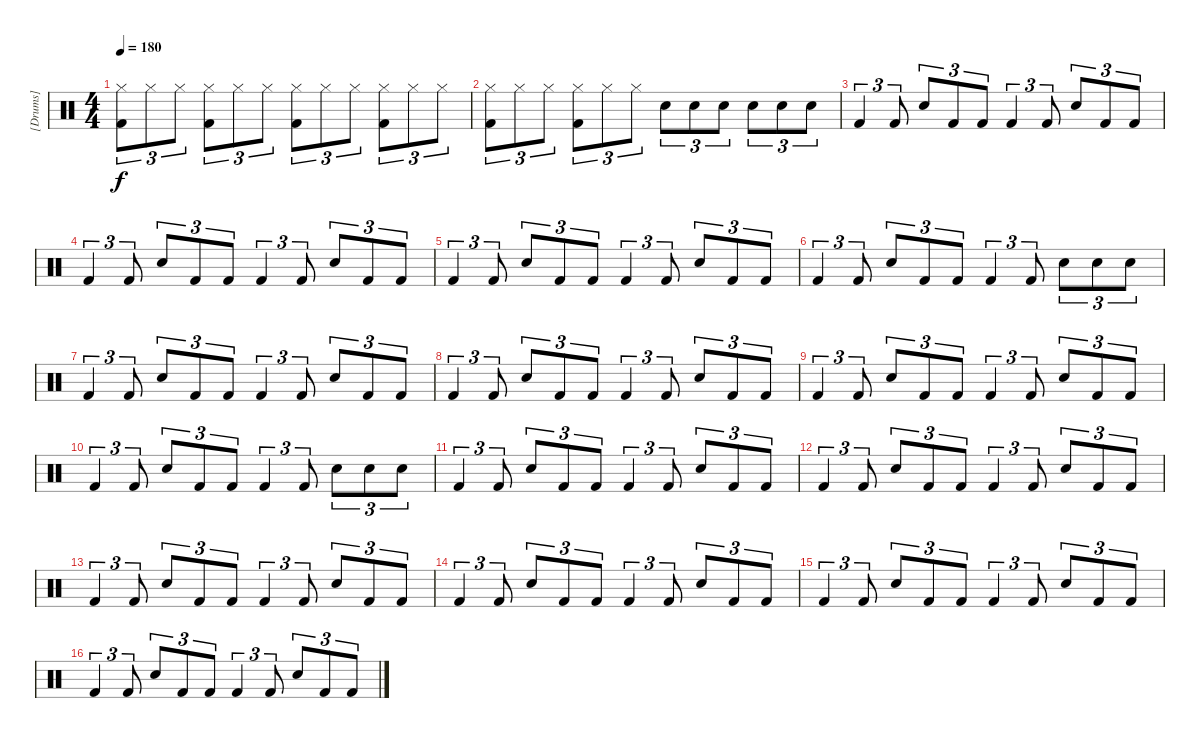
\track ("[Drums]" "[Drums]") {instrument percussion}
\staff {score}
\articulation defaults
\ts (4 4)
\tempo 180
\clef neutral
\ks c
("Hi-Hat (closed)" "Kick (hit) 2").8{tu (3 2) dy f} "Hi-Hat (closed)".8{tu (3 2)} "Hi-Hat (closed)".8{tu (3 2)} ("Hi-Hat (closed)" "Kick (hit) 2").8{tu (3 2)} "Hi-Hat (closed)".8{tu (3 2)} "Hi-Hat (closed)".8{tu (3 2)} ("Hi-Hat (closed)" "Kick (hit) 2").8{tu (3 2)} "Hi-Hat (closed)".8{tu (3 2)} "Hi-Hat (closed)".8{tu (3 2)} ("Hi-Hat (closed)" "Kick (hit) 2").8{tu (3 2)} "Hi-Hat (closed)".8{tu (3 2)} "Hi-Hat (closed)".8{tu (3 2)} |
("Hi-Hat (closed)" "Kick (hit) 2").8{tu (3 2)} "Hi-Hat (closed)".8{tu (3 2)} "Hi-Hat (closed)".8{tu (3 2)} ("Hi-Hat (closed)" "Kick (hit) 2").8{tu (3 2)} "Hi-Hat (closed)".8{tu (3 2)} "Hi-Hat (closed)".8{tu (3 2)} "Snare (hit) 2".8{tu (3 2)} "Snare (hit) 2".8{tu (3 2)} "Snare (hit) 2".8{tu (3 2)} "Snare (hit) 2".8{tu (3 2)} "Snare (hit) 2".8{tu (3 2)} "Snare (hit) 2".8{tu (3 2)} |
"Kick (hit) 2".4{tu (3 2)} "Kick (hit) 2".8{tu (3 2)} "Snare (hit) 2".8{tu (3 2)} "Kick (hit) 2".8{tu (3 2)} "Kick (hit) 2".8{tu (3 2)} "Kick (hit) 2".4{tu (3 2)} "Kick (hit) 2".8{tu (3 2)} "Snare (hit) 2".8{tu (3 2)} "Kick (hit) 2".8{tu (3 2)} "Kick (hit) 2".8{tu (3 2)} |
"Kick (hit) 2".4{tu (3 2)} "Kick (hit) 2".8{tu (3 2)} "Snare (hit) 2".8{tu (3 2)} "Kick (hit) 2".8{tu (3 2)} "Kick (hit) 2".8{tu (3 2)} "Kick (hit) 2".4{tu (3 2)} "Kick (hit) 2".8{tu (3 2)} "Snare (hit) 2".8{tu (3 2)} "Kick (hit) 2".8{tu (3 2)} "Kick (hit) 2".8{tu (3 2)} |
"Kick (hit) 2".4{tu (3 2)} "Kick (hit) 2".8{tu (3 2)} "Snare (hit) 2".8{tu (3 2)} "Kick (hit) 2".8{tu (3 2)} "Kick (hit) 2".8{tu (3 2)} "Kick (hit) 2".4{tu (3 2)} "Kick (hit) 2".8{tu (3 2)} "Snare (hit) 2".8{tu (3 2)} "Kick (hit) 2".8{tu (3 2)} "Kick (hit) 2".8{tu (3 2)} |
"Kick (hit) 2".4{tu (3 2)} "Kick (hit) 2".8{tu (3 2)} "Snare (hit) 2".8{tu (3 2)} "Kick (hit) 2".8{tu (3 2)} "Kick (hit) 2".8{tu (3 2)} "Kick (hit) 2".4{tu (3 2)} "Kick (hit) 2".8{tu (3 2)} "Snare (hit) 2".8{tu (3 2)} "Snare (hit) 2".8{tu (3 2)} "Snare (hit) 2".8{tu (3 2)} |
"Kick (hit) 2".4{tu (3 2)} "Kick (hit) 2".8{tu (3 2)} "Snare (hit) 2".8{tu (3 2)} "Kick (hit) 2".8{tu (3 2)} "Kick (hit) 2".8{tu (3 2)} "Kick (hit) 2".4{tu (3 2)} "Kick (hit) 2".8{tu (3 2)} "Snare (hit) 2".8{tu (3 2)} "Kick (hit) 2".8{tu (3 2)} "Kick (hit) 2".8{tu (3 2)} |
"Kick (hit) 2".4{tu (3 2)} "Kick (hit) 2".8{tu (3 2)} "Snare (hit) 2".8{tu (3 2)} "Kick (hit) 2".8{tu (3 2)} "Kick (hit) 2".8{tu (3 2)} "Kick (hit) 2".4{tu (3 2)} "Kick (hit) 2".8{tu (3 2)} "Snare (hit) 2".8{tu (3 2)} "Kick (hit) 2".8{tu (3 2)} "Kick (hit) 2".8{tu (3 2)} |
"Kick (hit) 2".4{tu (3 2)} "Kick (hit) 2".8{tu (3 2)} "Snare (hit) 2".8{tu (3 2)} "Kick (hit) 2".8{tu (3 2)} "Kick (hit) 2".8{tu (3 2)} "Kick (hit) 2".4{tu (3 2)} "Kick (hit) 2".8{tu (3 2)} "Snare (hit) 2".8{tu (3 2)} "Kick (hit) 2".8{tu (3 2)} "Kick (hit) 2".8{tu (3 2)} |
"Kick (hit) 2".4{tu (3 2)} "Kick (hit) 2".8{tu (3 2)} "Snare (hit) 2".8{tu (3 2)} "Kick (hit) 2".8{tu (3 2)} "Kick (hit) 2".8{tu (3 2)} "Kick (hit) 2".4{tu (3 2)} "Kick (hit) 2".8{tu (3 2)} "Snare (hit) 2".8{tu (3 2)} "Snare (hit) 2".8{tu (3 2)} "Snare (hit) 2".8{tu (3 2)} |
"Kick (hit) 2".4{tu (3 2)} "Kick (hit) 2".8{tu (3 2)} "Snare (hit) 2".8{tu (3 2)} "Kick (hit) 2".8{tu (3 2)} "Kick (hit) 2".8{tu (3 2)} "Kick (hit) 2".4{tu (3 2)} "Kick (hit) 2".8{tu (3 2)} "Snare (hit) 2".8{tu (3 2)} "Kick (hit) 2".8{tu (3 2)} "Kick (hit) 2".8{tu (3 2)} |
"Kick (hit) 2".4{tu (3 2)} "Kick (hit) 2".8{tu (3 2)} "Snare (hit) 2".8{tu (3 2)} "Kick (hit) 2".8{tu (3 2)} "Kick (hit) 2".8{tu (3 2)} "Kick (hit) 2".4{tu (3 2)} "Kick (hit) 2".8{tu (3 2)} "Snare (hit) 2".8{tu (3 2)} "Kick (hit) 2".8{tu (3 2)} "Kick (hit) 2".8{tu (3 2)} |
"Kick (hit) 2".4{tu (3 2)} "Kick (hit) 2".8{tu (3 2)} "Snare (hit) 2".8{tu (3 2)} "Kick (hit) 2".8{tu (3 2)} "Kick (hit) 2".8{tu (3 2)} "Kick (hit) 2".4{tu (3 2)} "Kick (hit) 2".8{tu (3 2)} "Snare (hit) 2".8{tu (3 2)} "Kick (hit) 2".8{tu (3 2)} "Kick (hit) 2".8{tu (3 2)} |
"Kick (hit) 2".4{tu (3 2)} "Kick (hit) 2".8{tu (3 2)} "Snare (hit) 2".8{tu (3 2)} "Kick (hit) 2".8{tu (3 2)} "Kick (hit) 2".8{tu (3 2)} "Kick (hit) 2".4{tu (3 2)} "Kick (hit) 2".8{tu (3 2)} "Snare (hit) 2".8{tu (3 2)} "Kick (hit) 2".8{tu (3 2)} "Kick (hit) 2".8{tu (3 2)} |
"Kick (hit) 2".4{tu (3 2)} "Kick (hit) 2".8{tu (3 2)} "Snare (hit) 2".8{tu (3 2)} "Kick (hit) 2".8{tu (3 2)} "Kick (hit) 2".8{tu (3 2)} "Kick (hit) 2".4{tu (3 2)} "Kick (hit) 2".8{tu (3 2)} "Snare (hit) 2".8{tu (3 2)} "Kick (hit) 2".8{tu (3 2)} "Kick (hit) 2".8{tu (3 2)} |
"Kick (hit) 2".4{tu (3 2)} "Kick (hit) 2".8{tu (3 2)} "Snare (hit) 2".8{tu (3 2)} "Kick (hit) 2".8{tu (3 2)} "Kick (hit) 2".8{tu (3 2)} "Kick (hit) 2".4{tu (3 2)} "Kick (hit) 2".8{tu (3 2)} "Snare (hit) 2".8{tu (3 2)} "Kick (hit) 2".8{tu (3 2)} "Kick (hit) 2".8{tu (3 2)}
